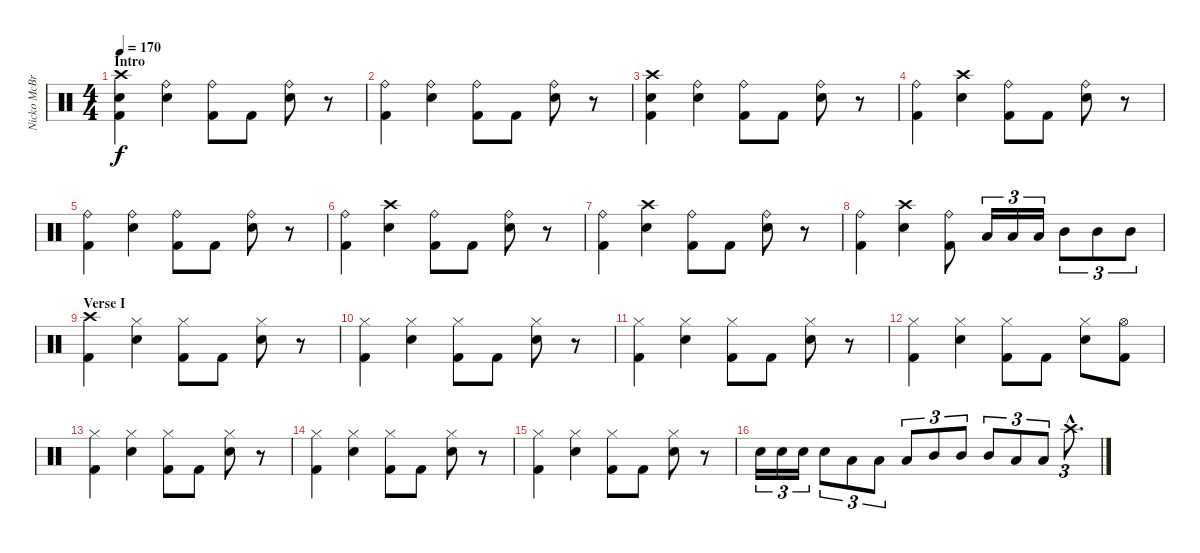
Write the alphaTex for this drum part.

\track ("Nicko McBrain" "Nicko McBr") {instrument percussion}
\staff {score}
\articulation defaults
\ts (4 4)
\section ("" "Intro")
\tempo 170
\clef neutral
\ks c
("Crash high (hit)" "Kick (hit) 2" "Snare (hit) 2").4{dy f} ("Ride (bell)" "Snare (hit) 2").4 ("Ride (bell)" "Kick (hit) 2").8 "Kick (hit) 2".8 ("Ride (bell)" "Snare (hit) 2").8 r.8 |
("Ride (bell)" "Kick (hit) 2").4 ("Ride (bell)" "Snare (hit) 2").4 ("Ride (bell)" "Kick (hit) 2").8 "Kick (hit) 2".8 ("Ride (bell)" "Snare (hit) 2").8 r.8 |
("Crash high (hit)" "Snare (hit) 2" "Kick (hit) 2").4 ("Ride (bell)" "Snare (hit) 2").4 ("Ride (bell)" "Kick (hit) 2").8 "Kick (hit) 2".8 ("Ride (bell)" "Snare (hit) 2").8 r.8 |
("Ride (bell)" "Kick (hit) 2").4 ("Crash high (hit)" "Snare (hit) 2").4 ("Ride (bell)" "Kick (hit) 2").8 "Kick (hit) 2".8 ("Ride (bell)" "Snare (hit) 2").8 r.8 |
("Ride (bell)" "Kick (hit) 2").4 ("Ride (bell)" "Snare (hit) 2").4 ("Ride (bell)" "Kick (hit) 2").8 "Kick (hit) 2".8 ("Ride (bell)" "Snare (hit) 2").8 r.8 |
("Ride (bell)" "Kick (hit) 2").4 ("Crash high (hit)" "Snare (hit) 2").4 ("Ride (bell)" "Kick (hit) 2").8 "Kick (hit) 2".8 ("Ride (bell)" "Snare (hit) 2").8 r.8 |
("Ride (bell)" "Kick (hit) 2").4 ("Crash high (hit)" "Snare (hit) 2").4 ("Ride (bell)" "Kick (hit) 2").8 "Kick (hit) 2".8 ("Ride (bell)" "Snare (hit) 2").8 r.8 |
("Ride (bell)" "Kick (hit) 2").4 ("Crash high (hit)" "Snare (hit) 2").4 ("Ride (bell)" "Kick (hit) 2").8 "Low Tom (hit)".16{tu (3 2)} "Low Tom (hit)".16{tu (3 2)} "Low Tom (hit)".16{tu (3 2)} "Mid Tom (hit)".8{tu (3 2)} "Mid Tom (hit)".8{tu (3 2)} "Mid Tom (hit)".8{tu (3 2)} |
\section ("" "Verse I")
("Crash high (hit)" "Kick (hit) 2").4 ("Hi-Hat (closed)" "Snare (hit) 2").4 ("Hi-Hat (closed)" "Kick (hit) 2").8 "Kick (hit) 2".8 ("Hi-Hat (closed)" "Snare (hit) 2").8 r.8 |
("Hi-Hat (closed)" "Kick (hit) 2").4 ("Hi-Hat (closed)" "Snare (hit) 2").4 ("Hi-Hat (closed)" "Kick (hit) 2").8 "Kick (hit) 2".8 ("Hi-Hat (closed)" "Snare (hit) 2").8 r.8 |
("Hi-Hat (closed)" "Kick (hit) 2").4 ("Hi-Hat (closed)" "Snare (hit) 2").4 ("Hi-Hat (closed)" "Kick (hit) 2").8 "Kick (hit) 2".8 ("Hi-Hat (closed)" "Snare (hit) 2").8 r.8 |
("Hi-Hat (closed)" "Kick (hit) 2").4 ("Hi-Hat (closed)" "Snare (hit) 2").4 ("Hi-Hat (closed)" "Kick (hit) 2").8 "Kick (hit) 2".8 ("Hi-Hat (closed)" "Snare (hit) 2").8 ("Hi-Hat (open)" "Kick (hit) 2").8 |
("Hi-Hat (closed)" "Kick (hit) 2").4 ("Hi-Hat (closed)" "Snare (hit) 2").4 ("Hi-Hat (closed)" "Kick (hit) 2").8 "Kick (hit) 2".8 ("Hi-Hat (closed)" "Snare (hit) 2").8 r.8 |
("Hi-Hat (closed)" "Kick (hit) 2").4 ("Hi-Hat (closed)" "Snare (hit) 2").4 ("Hi-Hat (closed)" "Kick (hit) 2").8 "Kick (hit) 2".8 ("Hi-Hat (closed)" "Snare (hit) 2").8 r.8 |
("Hi-Hat (closed)" "Kick (hit) 2").4 ("Hi-Hat (closed)" "Snare (hit) 2").4 ("Hi-Hat (closed)" "Kick (hit) 2").8 "Kick (hit) 2".8 ("Hi-Hat (closed)" "Snare (hit) 2").8 r.8 |
"Snare (hit) 2".16{tu (3 2)} "Snare (hit) 2".16{tu (3 2)} "Snare (hit) 2".16{tu (3 2)} "Snare (hit) 2".8{tu (3 2)} "Low Tom (hit)".8{tu (3 2)} "Low Tom (hit)".8{tu (3 2)} "Low Tom (hit)".8{tu (3 2)} "Mid Tom (hit)".8{tu (3 2)} "Mid Tom (hit)".8{tu (3 2)} "Mid Tom (hit)".8{tu (3 2)} "Low Tom (hit)".8{tu (3 2)} "Low Tom (hit)".8{tu (3 2)} "Crash high (hit)"{hac}.8{d tu (3 2)}
